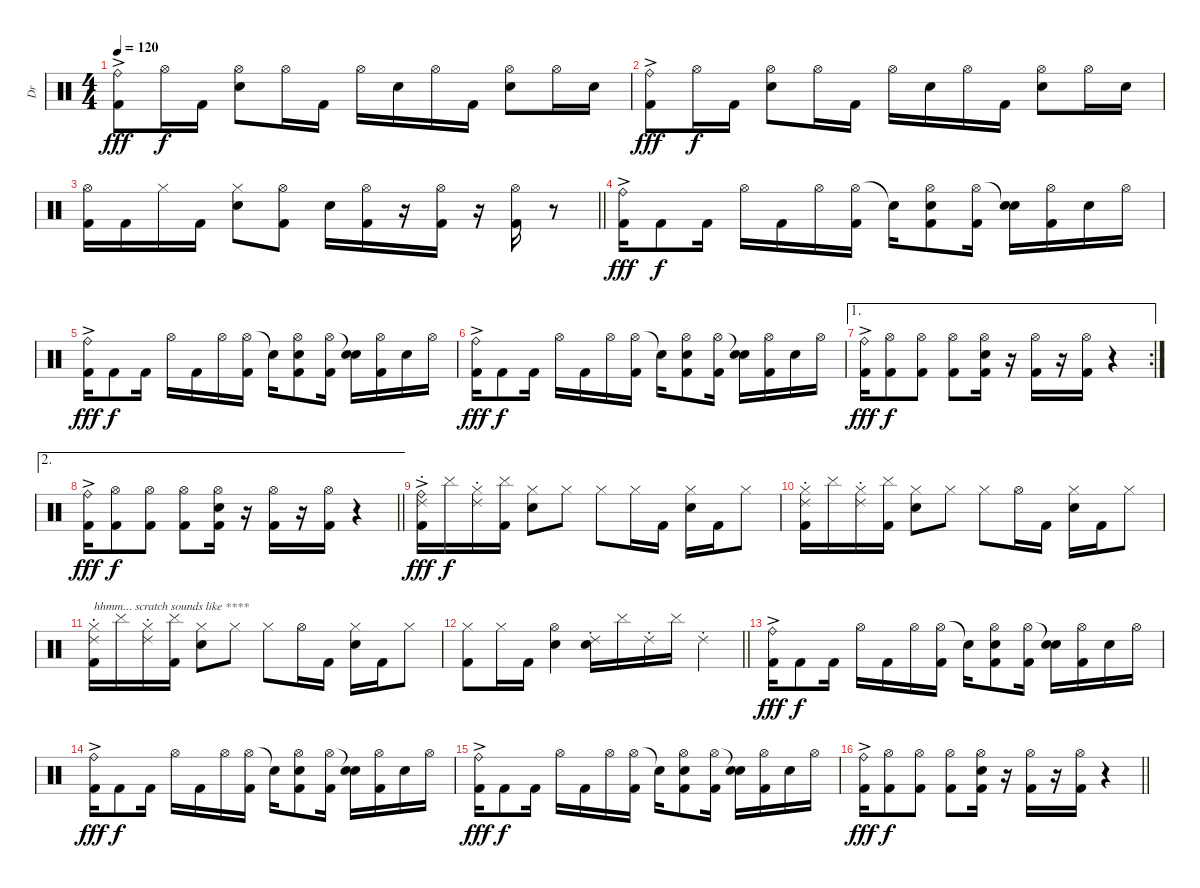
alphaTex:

\track ("Dr" "Dr") {instrument percussion}
\staff {score}
\articulation defaults
\ts (4 4)
\tempo 120
\clef neutral
\ks c
("Ride (bell)"{ac} "Kick (hit) 2"{ac}).8{dy fff} "Hi-Hat (open)".16{dy f} "Kick (hit) 2".16 ("Hi-Hat (open)" "Electric Snare (hit)").8 "Hi-Hat (open)".16 "Kick (hit) 2".16 "Hi-Hat (open)".16 "Electric Snare (hit)".16 "Hi-Hat (open)".16 "Kick (hit) 2".16 ("Hi-Hat (open)" "Electric Snare (hit)").8 "Hi-Hat (open)".16 "Electric Snare (hit)".16 |
("Ride (bell)"{ac} "Kick (hit) 2"{ac}).8{dy fff} "Hi-Hat (open)".16{dy f} "Kick (hit) 2".16 ("Hi-Hat (open)" "Electric Snare (hit)").8 "Hi-Hat (open)".16 "Kick (hit) 2".16 "Hi-Hat (open)".16 "Electric Snare (hit)".16 "Hi-Hat (open)".16 "Kick (hit) 2".16 ("Hi-Hat (open)" "Electric Snare (hit)").8 "Hi-Hat (open)".16 "Electric Snare (hit)".16 |
\barLineRight lightlight
("Hi-Hat (open)" "Kick (hit) 2").16 "Kick (hit) 2".16 "Hi-Hat (closed)".16 "Kick (hit) 2".16 ("Hi-Hat (closed)" "Electric Snare (hit)").8 ("Hi-Hat (open)" "Kick (hit) 2").8 "Electric Snare (hit)".16 ("Hi-Hat (open)" "Kick (hit) 2").16 r.16 ("Hi-Hat (open)" "Kick (hit) 2").16 r.16 ("Hi-Hat (open)" "Kick (hit) 2").16 r.8 |
("Ride (bell)"{ac} "Kick (hit) 2"{ac}).16{dy fff} "Kick (hit) 2".8{dy f} "Kick (hit) 2".16 "Hi-Hat (open)".16 "Kick (hit) 2".16 "Hi-Hat (open)".16 ("Hi-Hat (open)" "Kick (hit) 2").16 "Snare (hit)"{t}.16 ("Hi-Hat (open)" "Electric Snare (hit)" "Kick (hit) 2").8 ("Hi-Hat (open)" "Kick (hit) 2").16 ("Snare (hit)"{t} "Electric Snare (hit)").16 ("Hi-Hat (open)" "Kick (hit) 2").16 "Electric Snare (hit)".16 "Hi-Hat (open)".16 |
("Ride (bell)"{ac} "Kick (hit) 2"{ac}).16{dy fff} "Kick (hit) 2".8{dy f} "Kick (hit) 2".16 "Hi-Hat (open)".16 "Kick (hit) 2".16 "Hi-Hat (open)".16 ("Hi-Hat (open)" "Kick (hit) 2").16 "Snare (hit)"{t}.16 ("Hi-Hat (open)" "Electric Snare (hit)" "Kick (hit) 2").8 ("Hi-Hat (open)" "Kick (hit) 2").16 ("Snare (hit)"{t} "Electric Snare (hit)").16 ("Hi-Hat (open)" "Kick (hit) 2").16 "Electric Snare (hit)".16 "Hi-Hat (open)".16 |
("Ride (bell)"{ac} "Kick (hit) 2"{ac}).16{dy fff} "Kick (hit) 2".8{dy f} "Kick (hit) 2".16 "Hi-Hat (open)".16 "Kick (hit) 2".16 "Hi-Hat (open)".16 ("Hi-Hat (open)" "Kick (hit) 2").16 "Snare (hit)"{t}.16 ("Hi-Hat (open)" "Electric Snare (hit)" "Kick (hit) 2").8 ("Hi-Hat (open)" "Kick (hit) 2").16 ("Snare (hit)"{t} "Electric Snare (hit)").16 ("Hi-Hat (open)" "Kick (hit) 2").16 "Electric Snare (hit)".16 "Hi-Hat (open)".16 |
\ae 1
\rc 2
("Ride (bell)"{ac} "Kick (hit) 2"{ac}).16{dy fff} ("Hi-Hat (open)" "Kick (hit) 2").8{dy f} ("Hi-Hat (open)" "Kick (hit) 2").8 ("Hi-Hat (open)" "Kick (hit) 2").8 ("Hi-Hat (open)" "Electric Snare (hit)" "Kick (hit) 2").16 r.16 ("Hi-Hat (open)" "Kick (hit) 2").16 r.16 ("Hi-Hat (open)" "Kick (hit) 2").16 r.4 |
\ae 2
\barLineRight lightlight
("Ride (bell)"{ac} "Kick (hit) 2"{ac}).16{dy fff} ("Hi-Hat (open)" "Kick (hit) 2").8{dy f} ("Hi-Hat (open)" "Kick (hit) 2").8 ("Hi-Hat (open)" "Kick (hit) 2").8 ("Hi-Hat (open)" "Electric Snare (hit)" "Kick (hit) 2").16 r.16 ("Hi-Hat (open)" "Kick (hit) 2").16 r.16 ("Hi-Hat (open)" "Kick (hit) 2").16 r.4 |
("Ride (bell)"{ac} "Kick (hit) 2"{ac} "Ride (choke) 2").16{dy fff} "Cymbal (hit)".16{dy f} ("Hi-Hat (closed)" "Ride (choke) 2").16 ("Kick (hit) 2" "Cymbal (hit)").16 ("Hi-Hat (closed)" "Electric Snare (hit)").8 "Hi-Hat (closed)".8 "Hi-Hat (closed)".8 "Hi-Hat (closed)".16 "Kick (hit) 2".16 ("Hi-Hat (closed)" "Electric Snare (hit)").16 "Kick (hit) 2".16 "Hi-Hat (closed)".8 |
("Hi-Hat (closed)" "Kick (hit) 2" "Ride (choke) 2").16 "Cymbal (hit)".16 ("Hi-Hat (closed)" "Ride (choke) 2").16 ("Kick (hit) 2" "Cymbal (hit)").16 ("Hi-Hat (closed)" "Electric Snare (hit)").8 "Hi-Hat (closed)".8 "Hi-Hat (closed)".8 "Hi-Hat (open)".16 "Kick (hit) 2".16 ("Hi-Hat (closed)" "Electric Snare (hit)").16 "Kick (hit) 2".16 "Hi-Hat (closed)".8 |
("Hi-Hat (closed)" "Kick (hit) 2" "Ride (choke) 2").16{txt "hhmm... scratch sounds like ****"} "Cymbal (hit)".16 ("Hi-Hat (closed)" "Ride (choke) 2").16 ("Kick (hit) 2" "Cymbal (hit)").16 ("Hi-Hat (closed)" "Electric Snare (hit)").8 "Hi-Hat (closed)".8 "Hi-Hat (closed)".8 "Hi-Hat (open)".16 "Kick (hit) 2".16 ("Hi-Hat (closed)" "Electric Snare (hit)").16 "Kick (hit) 2".16 "Hi-Hat (closed)".8 |
\barLineRight lightlight
("Hi-Hat (closed)" "Kick (hit) 2").8 "Hi-Hat (closed)".16 "Kick (hit) 2".16 ("Hi-Hat (open)" "Electric Snare (hit)").4 ("Electric Snare (hit)" "Ride (choke) 2").16 "Cymbal (hit)".16 "Ride (choke) 2".16 "Cymbal (hit)".16 "Ride (choke) 2".4 |
("Ride (bell)"{ac} "Kick (hit) 2"{ac}).16{dy fff} "Kick (hit) 2".8{dy f} "Kick (hit) 2".16 "Hi-Hat (open)".16 "Kick (hit) 2".16 "Hi-Hat (open)".16 ("Hi-Hat (open)" "Kick (hit) 2").16 "Snare (hit)"{t}.16 ("Hi-Hat (open)" "Electric Snare (hit)" "Kick (hit) 2").8 ("Hi-Hat (open)" "Kick (hit) 2").16 ("Snare (hit)"{t} "Electric Snare (hit)").16 ("Hi-Hat (open)" "Kick (hit) 2").16 "Electric Snare (hit)".16 "Hi-Hat (open)".16 |
("Ride (bell)"{ac} "Kick (hit) 2"{ac}).16{dy fff} "Kick (hit) 2".8{dy f} "Kick (hit) 2".16 "Hi-Hat (open)".16 "Kick (hit) 2".16 "Hi-Hat (open)".16 ("Hi-Hat (open)" "Kick (hit) 2").16 "Snare (hit)"{t}.16 ("Hi-Hat (open)" "Electric Snare (hit)" "Kick (hit) 2").8 ("Hi-Hat (open)" "Kick (hit) 2").16 ("Snare (hit)"{t} "Electric Snare (hit)").16 ("Hi-Hat (open)" "Kick (hit) 2").16 "Electric Snare (hit)".16 "Hi-Hat (open)".16 |
("Ride (bell)"{ac} "Kick (hit) 2"{ac}).16{dy fff} "Kick (hit) 2".8{dy f} "Kick (hit) 2".16 "Hi-Hat (open)".16 "Kick (hit) 2".16 "Hi-Hat (open)".16 ("Hi-Hat (open)" "Kick (hit) 2").16 "Snare (hit)"{t}.16 ("Hi-Hat (open)" "Electric Snare (hit)" "Kick (hit) 2").8 ("Hi-Hat (open)" "Kick (hit) 2").16 ("Snare (hit)"{t} "Electric Snare (hit)").16 ("Hi-Hat (open)" "Kick (hit) 2").16 "Electric Snare (hit)".16 "Hi-Hat (open)".16 |
\barLineRight lightlight
("Ride (bell)"{ac} "Kick (hit) 2"{ac}).16{dy fff} ("Hi-Hat (open)" "Kick (hit) 2").8{dy f} ("Hi-Hat (open)" "Kick (hit) 2").8 ("Hi-Hat (open)" "Kick (hit) 2").8 ("Hi-Hat (open)" "Electric Snare (hit)" "Kick (hit) 2").16 r.16 ("Hi-Hat (open)" "Kick (hit) 2").16 r.16 ("Hi-Hat (open)" "Kick (hit) 2").16 r.4
